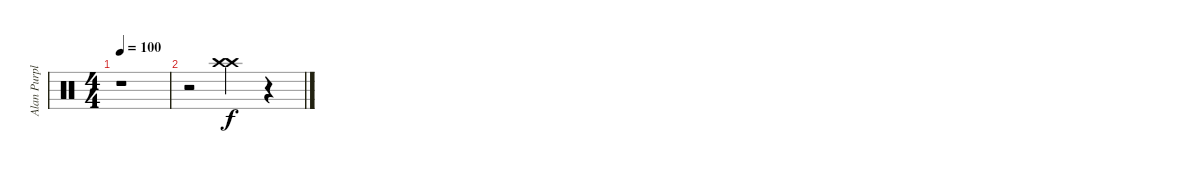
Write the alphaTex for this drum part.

\track ("Alan Purple" "Alan Purpl") {instrument percussion}
\staff {score}
\articulation defaults
\ts (4 4)
\tempo 100
\clef neutral
\ks c
r.1{dy f} |
r.2 ("Crash high (hit)" "Crash high (hit)").4 r.4
